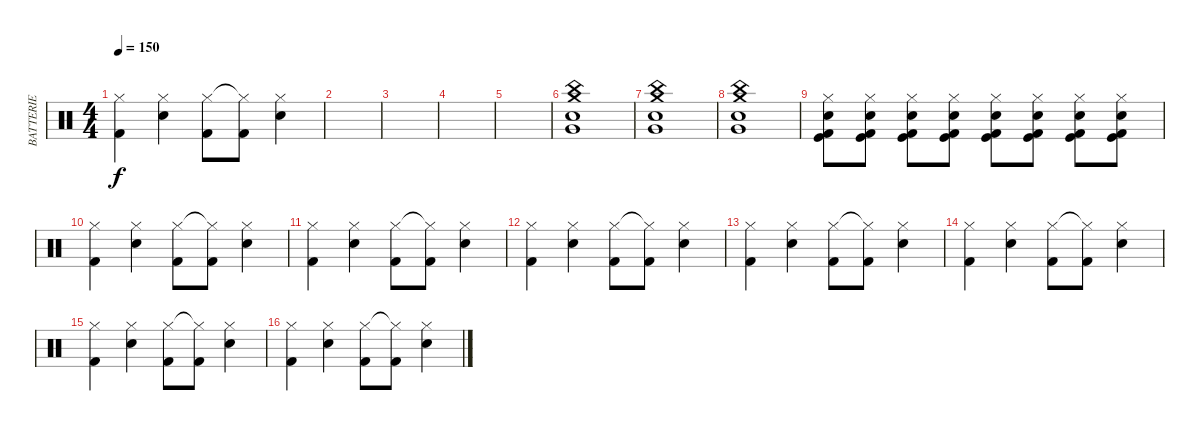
\track ("BATTERIE" "BATTERIE") {instrument percussion}
\staff {score}
\articulation defaults
\ts (4 4)
\tempo 150
\clef neutral
\ks c
("Hi-Hat (closed)" "Kick (hit) 2").4{dy f} ("Hi-Hat (closed)" "Snare (hit) 2").4 ("Hi-Hat (closed)" "Kick (hit) 2").8 ("Hi-Hat (closed)"{t} "Kick (hit) 2").8 ("Hi-Hat (closed)" "Snare (hit) 2").4 |
|
|
|
|
("Crash medium (hit)" "Snare (hit) 2" "China (hit)" "Very Low Tom (hit)").1 |
("Crash medium (hit)" "Snare (hit) 2" "China (hit)" "Very Low Tom (hit)").1 |
("Crash medium (hit)" "Snare (hit) 2" "China (hit)" "Very Low Tom (hit)").1 |
("Hi-Hat (closed)" "Snare (hit) 2" "Kick (hit)" "Kick (hit) 2").8 ("Hi-Hat (closed)" "Snare (hit) 2" "Kick (hit)" "Kick (hit) 2").8 ("Hi-Hat (closed)" "Snare (hit) 2" "Kick (hit)" "Kick (hit) 2").8 ("Hi-Hat (closed)" "Snare (hit) 2" "Kick (hit)" "Kick (hit) 2").8 ("Hi-Hat (closed)" "Snare (hit) 2" "Kick (hit)" "Kick (hit) 2").8 ("Hi-Hat (closed)" "Snare (hit) 2" "Kick (hit)" "Kick (hit) 2").8 ("Hi-Hat (closed)" "Snare (hit) 2" "Kick (hit)" "Kick (hit) 2").8 ("Hi-Hat (closed)" "Snare (hit) 2" "Kick (hit)" "Kick (hit) 2").8 |
("Hi-Hat (closed)" "Kick (hit) 2").4 ("Hi-Hat (closed)" "Snare (hit) 2").4 ("Hi-Hat (closed)" "Kick (hit) 2").8 ("Hi-Hat (closed)"{t} "Kick (hit) 2").8 ("Hi-Hat (closed)" "Snare (hit) 2").4 |
("Hi-Hat (closed)" "Kick (hit) 2").4 ("Hi-Hat (closed)" "Snare (hit) 2").4 ("Hi-Hat (closed)" "Kick (hit) 2").8 ("Hi-Hat (closed)"{t} "Kick (hit) 2").8 ("Hi-Hat (closed)" "Snare (hit) 2").4 |
("Hi-Hat (closed)" "Kick (hit) 2").4 ("Hi-Hat (closed)" "Snare (hit) 2").4 ("Hi-Hat (closed)" "Kick (hit) 2").8 ("Hi-Hat (closed)"{t} "Kick (hit) 2").8 ("Hi-Hat (closed)" "Snare (hit) 2").4 |
("Hi-Hat (closed)" "Kick (hit) 2").4 ("Hi-Hat (closed)" "Snare (hit) 2").4 ("Hi-Hat (closed)" "Kick (hit) 2").8 ("Hi-Hat (closed)"{t} "Kick (hit) 2").8 ("Hi-Hat (closed)" "Snare (hit) 2").4 |
("Hi-Hat (closed)" "Kick (hit) 2").4 ("Hi-Hat (closed)" "Snare (hit) 2").4 ("Hi-Hat (closed)" "Kick (hit) 2").8 ("Hi-Hat (closed)"{t} "Kick (hit) 2").8 ("Hi-Hat (closed)" "Snare (hit) 2").4 |
("Hi-Hat (closed)" "Kick (hit) 2").4 ("Hi-Hat (closed)" "Snare (hit) 2").4 ("Hi-Hat (closed)" "Kick (hit) 2").8 ("Hi-Hat (closed)"{t} "Kick (hit) 2").8 ("Hi-Hat (closed)" "Snare (hit) 2").4 |
("Hi-Hat (closed)" "Kick (hit) 2").4 ("Hi-Hat (closed)" "Snare (hit) 2").4 ("Hi-Hat (closed)" "Kick (hit) 2").8 ("Hi-Hat (closed)"{t} "Kick (hit) 2").8 ("Hi-Hat (closed)" "Snare (hit) 2").4
